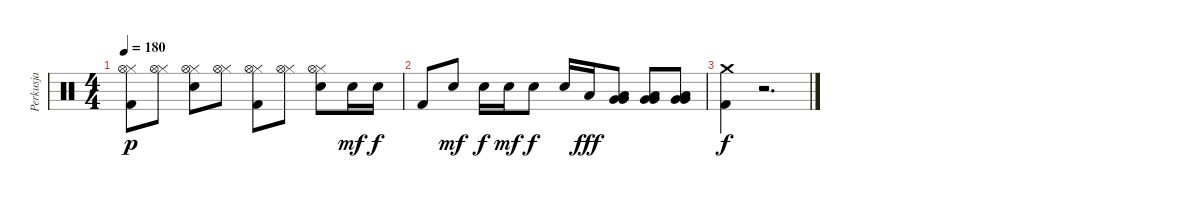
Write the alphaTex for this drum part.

\track ("Perkusja" "Perkusja") {instrument percussion}
\staff {score}
\articulation defaults
\ts (4 4)
\tempo 180
\clef neutral
\ks c
("Kick (hit) 2" "Hi-Hat (closed)" "Hi-Hat (open)").8{dy p} ("Hi-Hat (closed)" "Hi-Hat (open)").8 ("Electric Snare (hit)" "Hi-Hat (closed)" "Hi-Hat (open)").8 ("Hi-Hat (closed)" "Hi-Hat (open)").8 ("Kick (hit) 2" "Hi-Hat (closed)" "Hi-Hat (open)").8 ("Hi-Hat (closed)" "Hi-Hat (open)").8 ("Electric Snare (hit)" "Hi-Hat (closed)" "Hi-Hat (open)").8 "Electric Snare (hit)".16{dy mf} "Electric Snare (hit)".16{dy f} |
"Kick (hit) 2".8 "Electric Snare (hit)".8{dy mf} "Electric Snare (hit)".16{dy f} "Electric Snare (hit)".16{dy mf} "Electric Snare (hit)".8{dy f} "Electric Snare (hit)".16 "Low Tom (hit)".16{dy fff} ("Very Low Tom (hit)" "Very Low Tom (hit)" "Low Floor Tom (hit)").8 ("Very Low Tom (hit)" "Very Low Tom (hit)" "Low Floor Tom (hit)").8 ("Very Low Tom (hit)" "Very Low Tom (hit)" "Low Floor Tom (hit)").8 |
("Kick (hit) 2" "Crash medium (hit)").4{dy f} r.2{d}
